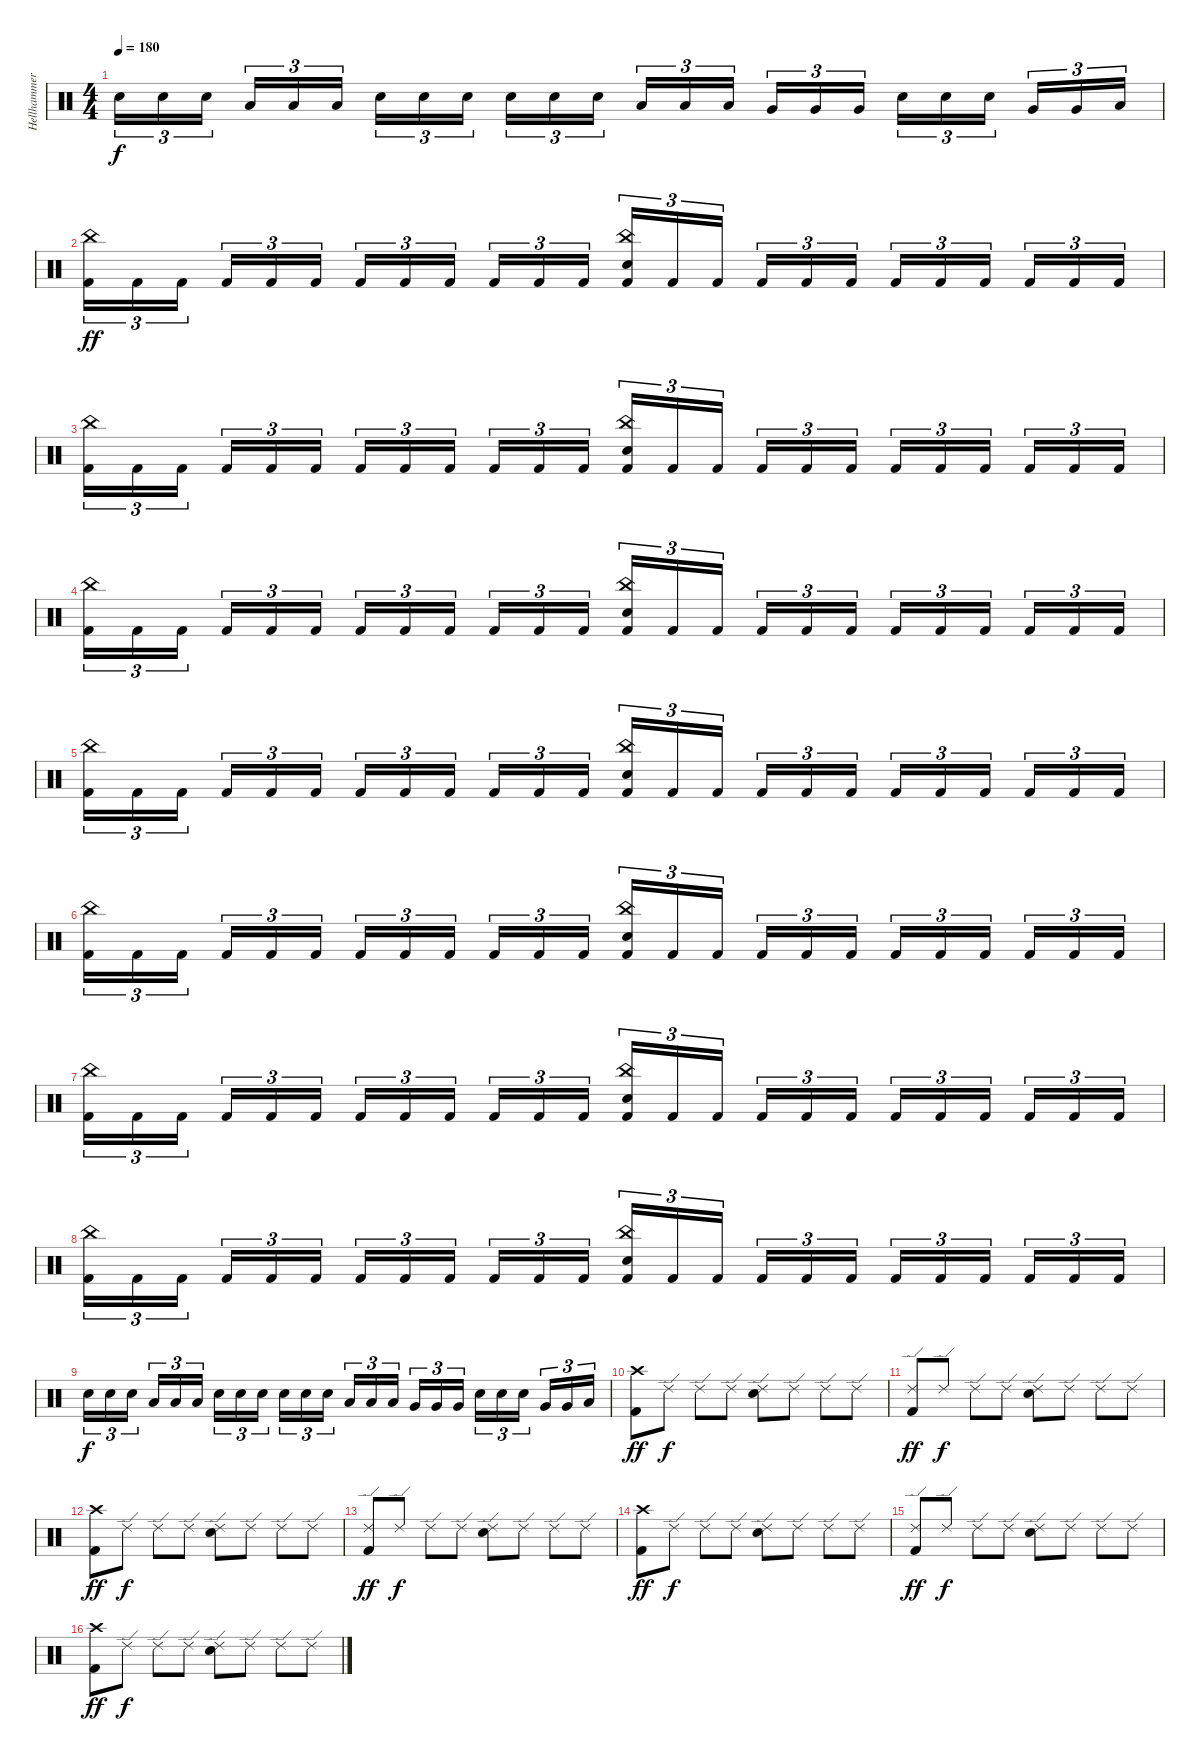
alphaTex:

\track ("Hellhammer" "Hellhammer") {instrument percussion}
\staff {score}
\articulation defaults
\ts (4 4)
\tempo 180
\clef neutral
\ks c "Electric Snare (hit)".16{tu (3 2) dy f} "Electric Snare (hit)".16{tu (3 2)} "Electric Snare (hit)".16{tu (3 2) beam splitsecondary} "Low Tom (hit)".16{tu (3 2)} "Low Tom (hit)".16{tu (3 2)} "Low Tom (hit)".16{tu (3 2)} "Electric Snare (hit)".16{tu (3 2)} "Electric Snare (hit)".16{tu (3 2)} "Electric Snare (hit)".16{tu (3 2) beam splitsecondary} "Electric Snare (hit)".16{tu (3 2)} "Electric Snare (hit)".16{tu (3 2)} "Electric Snare (hit)".16{tu (3 2)} "Low Tom (hit)".16{tu (3 2)} "Low Tom (hit)".16{tu (3 2)} "Low Tom (hit)".16{tu (3 2) beam splitsecondary} "Very Low Tom (hit)".16{tu (3 2)} "Very Low Tom (hit)".16{tu (3 2)} "Very Low Tom (hit)".16{tu (3 2)} "Electric Snare (hit)".16{tu (3 2)} "Electric Snare (hit)".16{tu (3 2)} "Electric Snare (hit)".16{tu (3 2) beam splitsecondary} "Very Low Tom (hit)".16{tu (3 2)} "Very Low Tom (hit)".16{tu (3 2)} "Low Floor Tom (hit)".16{tu (3 2)}
|
("China (hit)" "Kick (hit) 2").16{tu (3 2) dy ff} "Kick (hit) 2".16{tu (3 2)} "Kick (hit) 2".16{tu (3 2) beam splitsecondary} "Kick (hit) 2".16{tu (3 2)} "Kick (hit) 2".16{tu (3 2)} "Kick (hit) 2".16{tu (3 2)} "Kick (hit) 2".16{tu (3 2)} "Kick (hit) 2".16{tu (3 2)} "Kick (hit) 2".16{tu (3 2) beam splitsecondary} "Kick (hit) 2".16{tu (3 2)} "Kick (hit) 2".16{tu (3 2)} "Kick (hit) 2".16{tu (3 2)} ("China (hit)" "Electric Snare (hit)" "Kick (hit) 2").16{tu (3 2)} "Kick (hit) 2".16{tu (3 2)} "Kick (hit) 2".16{tu (3 2) beam splitsecondary} "Kick (hit) 2".16{tu (3 2)} "Kick (hit) 2".16{tu (3 2)} "Kick (hit) 2".16{tu (3 2)} "Kick (hit) 2".16{tu (3 2)} "Kick (hit) 2".16{tu (3 2)} "Kick (hit) 2".16{tu (3 2) beam splitsecondary} "Kick (hit) 2".16{tu (3 2)} "Kick (hit) 2".16{tu (3 2)} "Kick (hit) 2".16{tu (3 2)} |
("China (hit)" "Kick (hit) 2").16{tu (3 2)} "Kick (hit) 2".16{tu (3 2)} "Kick (hit) 2".16{tu (3 2) beam splitsecondary} "Kick (hit) 2".16{tu (3 2)} "Kick (hit) 2".16{tu (3 2)} "Kick (hit) 2".16{tu (3 2)} "Kick (hit) 2".16{tu (3 2)} "Kick (hit) 2".16{tu (3 2)} "Kick (hit) 2".16{tu (3 2) beam splitsecondary} "Kick (hit) 2".16{tu (3 2)} "Kick (hit) 2".16{tu (3 2)} "Kick (hit) 2".16{tu (3 2)} ("China (hit)" "Electric Snare (hit)" "Kick (hit) 2").16{tu (3 2)} "Kick (hit) 2".16{tu (3 2)} "Kick (hit) 2".16{tu (3 2) beam splitsecondary} "Kick (hit) 2".16{tu (3 2)} "Kick (hit) 2".16{tu (3 2)} "Kick (hit) 2".16{tu (3 2)} "Kick (hit) 2".16{tu (3 2)} "Kick (hit) 2".16{tu (3 2)} "Kick (hit) 2".16{tu (3 2) beam splitsecondary} "Kick (hit) 2".16{tu (3 2)} "Kick (hit) 2".16{tu (3 2)} "Kick (hit) 2".16{tu (3 2)} |
("China (hit)" "Kick (hit) 2").16{tu (3 2)} "Kick (hit) 2".16{tu (3 2)} "Kick (hit) 2".16{tu (3 2) beam splitsecondary} "Kick (hit) 2".16{tu (3 2)} "Kick (hit) 2".16{tu (3 2)} "Kick (hit) 2".16{tu (3 2)} "Kick (hit) 2".16{tu (3 2)} "Kick (hit) 2".16{tu (3 2)} "Kick (hit) 2".16{tu (3 2) beam splitsecondary} "Kick (hit) 2".16{tu (3 2)} "Kick (hit) 2".16{tu (3 2)} "Kick (hit) 2".16{tu (3 2)} ("China (hit)" "Electric Snare (hit)" "Kick (hit) 2").16{tu (3 2)} "Kick (hit) 2".16{tu (3 2)} "Kick (hit) 2".16{tu (3 2) beam splitsecondary} "Kick (hit) 2".16{tu (3 2)} "Kick (hit) 2".16{tu (3 2)} "Kick (hit) 2".16{tu (3 2)} "Kick (hit) 2".16{tu (3 2)} "Kick (hit) 2".16{tu (3 2)} "Kick (hit) 2".16{tu (3 2) beam splitsecondary} "Kick (hit) 2".16{tu (3 2)} "Kick (hit) 2".16{tu (3 2)} "Kick (hit) 2".16{tu (3 2)} |
("China (hit)" "Kick (hit) 2").16{tu (3 2)} "Kick (hit) 2".16{tu (3 2)} "Kick (hit) 2".16{tu (3 2) beam splitsecondary} "Kick (hit) 2".16{tu (3 2)} "Kick (hit) 2".16{tu (3 2)} "Kick (hit) 2".16{tu (3 2)} "Kick (hit) 2".16{tu (3 2)} "Kick (hit) 2".16{tu (3 2)} "Kick (hit) 2".16{tu (3 2) beam splitsecondary} "Kick (hit) 2".16{tu (3 2)} "Kick (hit) 2".16{tu (3 2)} "Kick (hit) 2".16{tu (3 2)} ("China (hit)" "Electric Snare (hit)" "Kick (hit) 2").16{tu (3 2)} "Kick (hit) 2".16{tu (3 2)} "Kick (hit) 2".16{tu (3 2) beam splitsecondary} "Kick (hit) 2".16{tu (3 2)} "Kick (hit) 2".16{tu (3 2)} "Kick (hit) 2".16{tu (3 2)} "Kick (hit) 2".16{tu (3 2)} "Kick (hit) 2".16{tu (3 2)} "Kick (hit) 2".16{tu (3 2) beam splitsecondary} "Kick (hit) 2".16{tu (3 2)} "Kick (hit) 2".16{tu (3 2)} "Kick (hit) 2".16{tu (3 2)} |
("China (hit)" "Kick (hit) 2").16{tu (3 2)} "Kick (hit) 2".16{tu (3 2)} "Kick (hit) 2".16{tu (3 2) beam splitsecondary} "Kick (hit) 2".16{tu (3 2)} "Kick (hit) 2".16{tu (3 2)} "Kick (hit) 2".16{tu (3 2)} "Kick (hit) 2".16{tu (3 2)} "Kick (hit) 2".16{tu (3 2)} "Kick (hit) 2".16{tu (3 2) beam splitsecondary} "Kick (hit) 2".16{tu (3 2)} "Kick (hit) 2".16{tu (3 2)} "Kick (hit) 2".16{tu (3 2)} ("China (hit)" "Electric Snare (hit)" "Kick (hit) 2").16{tu (3 2)} "Kick (hit) 2".16{tu (3 2)} "Kick (hit) 2".16{tu (3 2) beam splitsecondary} "Kick (hit) 2".16{tu (3 2)} "Kick (hit) 2".16{tu (3 2)} "Kick (hit) 2".16{tu (3 2)} "Kick (hit) 2".16{tu (3 2)} "Kick (hit) 2".16{tu (3 2)} "Kick (hit) 2".16{tu (3 2) beam splitsecondary} "Kick (hit) 2".16{tu (3 2)} "Kick (hit) 2".16{tu (3 2)} "Kick (hit) 2".16{tu (3 2)} |
("China (hit)" "Kick (hit) 2").16{tu (3 2)} "Kick (hit) 2".16{tu (3 2)} "Kick (hit) 2".16{tu (3 2) beam splitsecondary} "Kick (hit) 2".16{tu (3 2)} "Kick (hit) 2".16{tu (3 2)} "Kick (hit) 2".16{tu (3 2)} "Kick (hit) 2".16{tu (3 2)} "Kick (hit) 2".16{tu (3 2)} "Kick (hit) 2".16{tu (3 2) beam splitsecondary} "Kick (hit) 2".16{tu (3 2)} "Kick (hit) 2".16{tu (3 2)} "Kick (hit) 2".16{tu (3 2)} ("China (hit)" "Electric Snare (hit)" "Kick (hit) 2").16{tu (3 2)} "Kick (hit) 2".16{tu (3 2)} "Kick (hit) 2".16{tu (3 2) beam splitsecondary} "Kick (hit) 2".16{tu (3 2)} "Kick (hit) 2".16{tu (3 2)} "Kick (hit) 2".16{tu (3 2)} "Kick (hit) 2".16{tu (3 2)} "Kick (hit) 2".16{tu (3 2)} "Kick (hit) 2".16{tu (3 2) beam splitsecondary} "Kick (hit) 2".16{tu (3 2)} "Kick (hit) 2".16{tu (3 2)} "Kick (hit) 2".16{tu (3 2)} |
("China (hit)" "Kick (hit) 2").16{tu (3 2)} "Kick (hit) 2".16{tu (3 2)} "Kick (hit) 2".16{tu (3 2) beam splitsecondary} "Kick (hit) 2".16{tu (3 2)} "Kick (hit) 2".16{tu (3 2)} "Kick (hit) 2".16{tu (3 2)} "Kick (hit) 2".16{tu (3 2)} "Kick (hit) 2".16{tu (3 2)} "Kick (hit) 2".16{tu (3 2) beam splitsecondary} "Kick (hit) 2".16{tu (3 2)} "Kick (hit) 2".16{tu (3 2)} "Kick (hit) 2".16{tu (3 2)} ("China (hit)" "Electric Snare (hit)" "Kick (hit) 2").16{tu (3 2)} "Kick (hit) 2".16{tu (3 2)} "Kick (hit) 2".16{tu (3 2) beam splitsecondary} "Kick (hit) 2".16{tu (3 2)} "Kick (hit) 2".16{tu (3 2)} "Kick (hit) 2".16{tu (3 2)} "Kick (hit) 2".16{tu (3 2)} "Kick (hit) 2".16{tu (3 2)} "Kick (hit) 2".16{tu (3 2) beam splitsecondary} "Kick (hit) 2".16{tu (3 2)} "Kick (hit) 2".16{tu (3 2)} "Kick (hit) 2".16{tu (3 2)} |
"Electric Snare (hit)".16{tu (3 2) dy f} "Electric Snare (hit)".16{tu (3 2)} "Electric Snare (hit)".16{tu (3 2) beam splitsecondary} "Low Tom (hit)".16{tu (3 2)} "Low Tom (hit)".16{tu (3 2)} "Low Tom (hit)".16{tu (3 2)} "Electric Snare (hit)".16{tu (3 2)} "Electric Snare (hit)".16{tu (3 2)} "Electric Snare (hit)".16{tu (3 2) beam splitsecondary} "Electric Snare (hit)".16{tu (3 2)} "Electric Snare (hit)".16{tu (3 2)} "Electric Snare (hit)".16{tu (3 2)} "Low Tom (hit)".16{tu (3 2)} "Low Tom (hit)".16{tu (3 2)} "Low Tom (hit)".16{tu (3 2) beam splitsecondary} "Very Low Tom (hit)".16{tu (3 2)} "Very Low Tom (hit)".16{tu (3 2)} "Very Low Tom (hit)".16{tu (3 2)} "Electric Snare (hit)".16{tu (3 2)} "Electric Snare (hit)".16{tu (3 2)} "Electric Snare (hit)".16{tu (3 2) beam splitsecondary} "Very Low Tom (hit)".16{tu (3 2)} "Very Low Tom (hit)".16{tu (3 2)} "Low Floor Tom (hit)".16{tu (3 2)} |
("Crash high (hit)" "Kick (hit) 2").8{dy ff} "Ride (edge) 2".8{dy f} "Ride (edge) 2".8 "Ride (edge) 2".8 ("Ride (edge) 2" "Electric Snare (hit)").8 "Ride (edge) 2".8 "Ride (edge) 2".8 "Ride (edge) 2".8 |
("Ride (edge) 2" "Kick (hit) 2").8{dy ff} "Ride (edge) 2".8{dy f} "Ride (edge) 2".8 "Ride (edge) 2".8 ("Ride (edge) 2" "Electric Snare (hit)").8 "Ride (edge) 2".8 "Ride (edge) 2".8 "Ride (edge) 2".8 |
("Crash high (hit)" "Kick (hit) 2").8{dy ff} "Ride (edge) 2".8{dy f} "Ride (edge) 2".8 "Ride (edge) 2".8 ("Ride (edge) 2" "Electric Snare (hit)").8 "Ride (edge) 2".8 "Ride (edge) 2".8 "Ride (edge) 2".8 |
("Ride (edge) 2" "Kick (hit) 2").8{dy ff} "Ride (edge) 2".8{dy f} "Ride (edge) 2".8 "Ride (edge) 2".8 ("Ride (edge) 2" "Electric Snare (hit)").8 "Ride (edge) 2".8 "Ride (edge) 2".8 "Ride (edge) 2".8 |
("Crash high (hit)" "Kick (hit) 2").8{dy ff} "Ride (edge) 2".8{dy f} "Ride (edge) 2".8 "Ride (edge) 2".8 ("Ride (edge) 2" "Electric Snare (hit)").8 "Ride (edge) 2".8 "Ride (edge) 2".8 "Ride (edge) 2".8 |
("Ride (edge) 2" "Kick (hit) 2").8{dy ff} "Ride (edge) 2".8{dy f} "Ride (edge) 2".8 "Ride (edge) 2".8 ("Ride (edge) 2" "Electric Snare (hit)").8 "Ride (edge) 2".8 "Ride (edge) 2".8 "Ride (edge) 2".8 |
("Crash high (hit)" "Kick (hit) 2").8{dy ff} "Ride (edge) 2".8{dy f} "Ride (edge) 2".8 "Ride (edge) 2".8 ("Ride (edge) 2" "Electric Snare (hit)").8 "Ride (edge) 2".8 "Ride (edge) 2".8 "Ride (edge) 2".8
